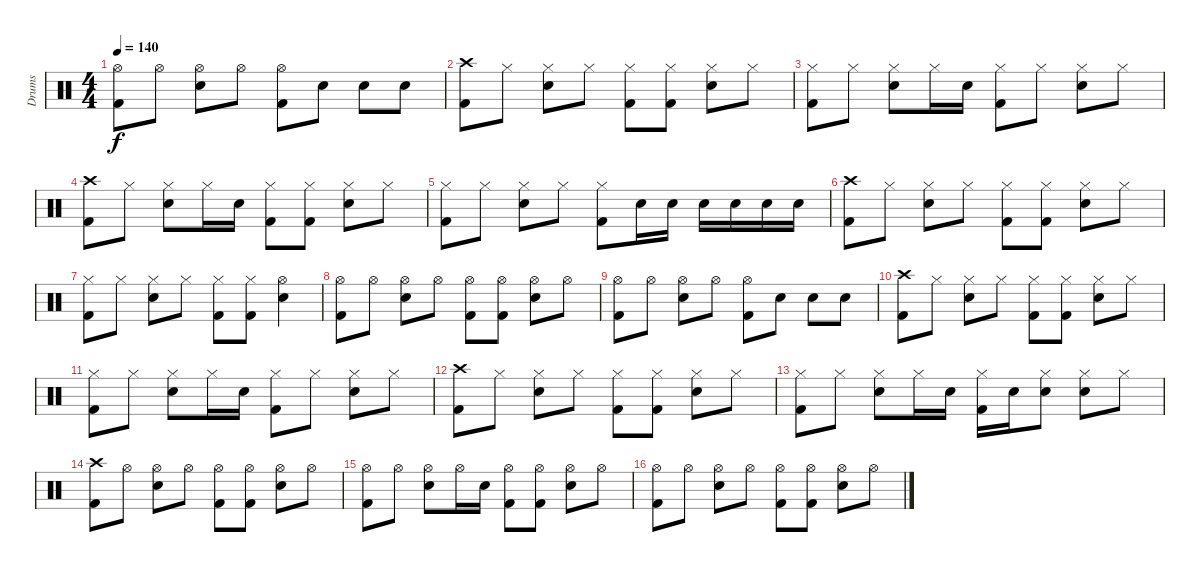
\track ("Drums" "Drums") {instrument percussion}
\staff {score}
\articulation defaults
\ts (4 4)
\tempo 140
\clef neutral
\ks c
("Hi-Hat (open)" "Kick (hit) 2").8{dy f} "Hi-Hat (open)".8 ("Hi-Hat (open)" "Snare (hit) 2").8 "Hi-Hat (open)".8 ("Hi-Hat (open)" "Kick (hit) 2").8 "Snare (hit) 2".8 "Snare (hit) 2".8 "Snare (hit) 2".8 |
("Crash high (hit)" "Kick (hit) 2").8 "Hi-Hat (closed)".8 ("Hi-Hat (closed)" "Snare (hit) 2").8 "Hi-Hat (closed)".8 ("Hi-Hat (closed)" "Kick (hit) 2").8 ("Hi-Hat (closed)" "Kick (hit) 2").8 ("Hi-Hat (closed)" "Snare (hit) 2").8 "Hi-Hat (closed)".8 |
("Hi-Hat (closed)" "Kick (hit) 2").8 "Hi-Hat (closed)".8 ("Hi-Hat (closed)" "Snare (hit) 2").8 "Hi-Hat (closed)".16 "Snare (hit) 2".16 ("Hi-Hat (closed)" "Kick (hit) 2").8 "Hi-Hat (closed)".8 ("Hi-Hat (closed)" "Snare (hit) 2").8 "Hi-Hat (closed)".8 |
("Crash high (hit)" "Kick (hit) 2").8 "Hi-Hat (closed)".8 ("Hi-Hat (closed)" "Snare (hit) 2").8 "Hi-Hat (closed)".16 "Snare (hit) 2".16 ("Hi-Hat (closed)" "Kick (hit) 2").8 ("Hi-Hat (closed)" "Kick (hit) 2").8 ("Hi-Hat (closed)" "Snare (hit) 2").8 "Hi-Hat (closed)".8 |
("Hi-Hat (closed)" "Kick (hit) 2").8 "Hi-Hat (closed)".8 ("Hi-Hat (closed)" "Snare (hit) 2").8 "Hi-Hat (closed)".8 ("Hi-Hat (closed)" "Kick (hit) 2").8 "Snare (hit) 2".16 "Snare (hit) 2".16 "Electric Snare (hit)".16 "Electric Snare (hit)".16 "Snare (hit) 2".16 "Snare (hit) 2".16 |
("Crash high (hit)" "Kick (hit) 2").8 "Hi-Hat (closed)".8 ("Hi-Hat (closed)" "Snare (hit) 2").8 "Hi-Hat (closed)".8 ("Hi-Hat (closed)" "Kick (hit) 2").8 ("Hi-Hat (closed)" "Kick (hit) 2").8 ("Hi-Hat (closed)" "Snare (hit) 2").8 "Hi-Hat (closed)".8 |
("Hi-Hat (closed)" "Kick (hit) 2").8 "Hi-Hat (closed)".8 ("Hi-Hat (closed)" "Snare (hit) 2").8 "Hi-Hat (closed)".8 ("Hi-Hat (closed)" "Kick (hit) 2").8 ("Hi-Hat (closed)" "Kick (hit) 2").8 ("Hi-Hat (open)" "Snare (hit) 2").4 |
("Hi-Hat (open)" "Kick (hit) 2").8 "Hi-Hat (open)".8 ("Hi-Hat (open)" "Snare (hit) 2").8 "Hi-Hat (open)".8 ("Hi-Hat (open)" "Kick (hit) 2").8 ("Hi-Hat (open)" "Kick (hit) 2").8 ("Hi-Hat (open)" "Snare (hit) 2").8 "Hi-Hat (open)".8 |
("Hi-Hat (open)" "Kick (hit) 2").8 "Hi-Hat (open)".8 ("Hi-Hat (open)" "Snare (hit) 2").8 "Hi-Hat (open)".8 ("Hi-Hat (open)" "Kick (hit) 2").8 "Snare (hit) 2".8 "Snare (hit) 2".8 "Snare (hit) 2".8 |
("Crash high (hit)" "Kick (hit) 2").8 "Hi-Hat (closed)".8 ("Hi-Hat (closed)" "Snare (hit) 2").8 "Hi-Hat (closed)".8 ("Hi-Hat (closed)" "Kick (hit) 2").8 ("Hi-Hat (closed)" "Kick (hit) 2").8 ("Hi-Hat (closed)" "Snare (hit) 2").8 "Hi-Hat (closed)".8 |
("Hi-Hat (closed)" "Kick (hit) 2").8 "Hi-Hat (closed)".8 ("Hi-Hat (closed)" "Snare (hit) 2").8 "Hi-Hat (closed)".16 "Snare (hit) 2".16 ("Hi-Hat (closed)" "Kick (hit) 2").8 "Hi-Hat (closed)".8 ("Hi-Hat (closed)" "Snare (hit) 2").8 "Hi-Hat (closed)".8 |
("Crash high (hit)" "Kick (hit) 2").8 "Hi-Hat (closed)".8 ("Hi-Hat (closed)" "Snare (hit) 2").8 "Hi-Hat (closed)".8 ("Hi-Hat (closed)" "Kick (hit) 2").8 ("Hi-Hat (closed)" "Kick (hit) 2").8 ("Hi-Hat (closed)" "Snare (hit) 2").8 "Hi-Hat (closed)".8 |
("Hi-Hat (closed)" "Kick (hit) 2").8 "Hi-Hat (closed)".8 ("Hi-Hat (closed)" "Snare (hit) 2").8 "Hi-Hat (closed)".16 "Snare (hit) 2".16 ("Hi-Hat (closed)" "Kick (hit) 2").16 "Electric Snare (hit)".16 ("Hi-Hat (closed)" "Snare (hit) 2").8 ("Hi-Hat (closed)" "Snare (hit) 2").8 "Hi-Hat (closed)".8 |
("Crash high (hit)" "Kick (hit) 2").8 "Hi-Hat (open)".8 ("Hi-Hat (open)" "Snare (hit) 2").8 "Hi-Hat (open)".8 ("Hi-Hat (open)" "Kick (hit) 2").8 ("Hi-Hat (open)" "Kick (hit) 2").8 ("Hi-Hat (open)" "Snare (hit) 2").8 "Hi-Hat (open)".8 |
("Hi-Hat (open)" "Kick (hit) 2").8 "Hi-Hat (open)".8 ("Hi-Hat (open)" "Snare (hit) 2").8 "Hi-Hat (open)".16 "Snare (hit) 2".16 ("Hi-Hat (open)" "Kick (hit) 2").8 ("Hi-Hat (open)" "Kick (hit) 2").8 ("Hi-Hat (open)" "Snare (hit) 2").8 "Hi-Hat (open)".8 |
("Hi-Hat (open)" "Kick (hit) 2").8 "Hi-Hat (open)".8 ("Hi-Hat (open)" "Snare (hit) 2").8 "Hi-Hat (open)".8 ("Hi-Hat (open)" "Kick (hit) 2").8 ("Hi-Hat (open)" "Kick (hit) 2").8 ("Hi-Hat (open)" "Snare (hit) 2").8 "Hi-Hat (open)".8
